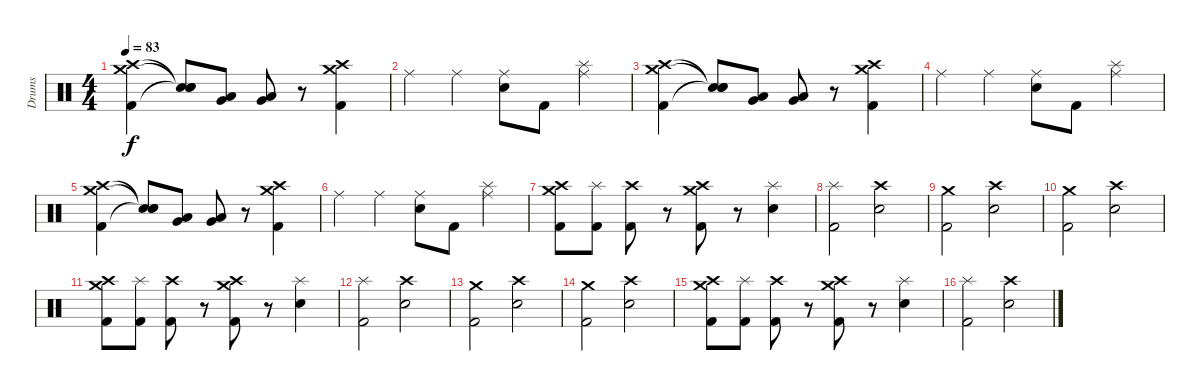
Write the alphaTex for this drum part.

\track ("Drums" "Drums") {instrument percussion}
\staff {score}
\articulation defaults
\ts (4 4)
\tempo 83
\clef neutral
\ks c
("Crash high (hit)" "Crash medium (hit)" "Kick (hit) 2").4{dy f} ("Snare (hit)"{t} "Snare (hit)"{t} "Snare (hit)"{t}).8 ("Low Tom (hit)" "Very Low Tom (hit)").8 ("Low Tom (hit)" "Very Low Tom (hit)").8 r.8 ("Crash high (hit)" "Crash medium (hit)" "Kick (hit) 2").4 |
"Ride (middle)".4 "Ride (middle)".4 ("Ride (middle)" "Snare (hit) 2").8 "Kick (hit) 2".8 ("Ride (middle)" "Splash (hit)").4 |
("Crash high (hit)" "Crash medium (hit)" "Kick (hit) 2").4 ("Snare (hit)"{t} "Snare (hit)"{t} "Snare (hit)"{t}).8 ("Low Tom (hit)" "Very Low Tom (hit)").8 ("Low Tom (hit)" "Very Low Tom (hit)").8 r.8 ("Crash high (hit)" "Crash medium (hit)" "Kick (hit) 2").4 |
"Ride (middle)".4 "Ride (middle)".4 ("Ride (middle)" "Snare (hit) 2").8 "Kick (hit) 2".8 ("Ride (middle)" "Splash (hit)").4 |
("Crash high (hit)" "Crash medium (hit)" "Kick (hit) 2").4 ("Snare (hit)"{t} "Snare (hit)"{t} "Snare (hit)"{t}).8 ("Low Tom (hit)" "Very Low Tom (hit)").8 ("Low Tom (hit)" "Very Low Tom (hit)").8 r.8 ("Crash high (hit)" "Crash medium (hit)" "Kick (hit) 2").4 |
"Ride (middle)".4 "Ride (middle)".4 ("Ride (middle)" "Snare (hit) 2").8 "Kick (hit) 2".8 ("Ride (middle)" "Splash (hit)").4 |
("Crash medium (hit)" "Crash high (hit)" "Kick (hit) 2").8 ("Splash (hit)" "Kick (hit) 2").8 ("Crash high (hit)" "Kick (hit) 2").8 r.8 ("Crash medium (hit)" "Crash high (hit)" "Kick (hit) 2").8 r.8 ("Splash (hit)" "Snare (hit) 2").4 |
("Splash (hit)" "Kick (hit) 2").2 ("Crash high (hit)" "Snare (hit) 2").2 |
("Crash medium (hit)" "Kick (hit) 2").2 ("Crash high (hit)" "Snare (hit) 2").2 |
("Crash medium (hit)" "Kick (hit) 2").2 ("Crash high (hit)" "Snare (hit) 2").2 |
("Crash medium (hit)" "Crash high (hit)" "Kick (hit) 2").8 ("Splash (hit)" "Kick (hit) 2").8 ("Crash high (hit)" "Kick (hit) 2").8 r.8 ("Crash medium (hit)" "Crash high (hit)" "Kick (hit) 2").8 r.8 ("Splash (hit)" "Snare (hit) 2").4 |
("Splash (hit)" "Kick (hit) 2").2 ("Crash high (hit)" "Snare (hit) 2").2 |
("Crash medium (hit)" "Kick (hit) 2").2 ("Crash high (hit)" "Snare (hit) 2").2 |
("Crash medium (hit)" "Kick (hit) 2").2 ("Crash high (hit)" "Snare (hit) 2").2 |
("Crash medium (hit)" "Crash high (hit)" "Kick (hit) 2").8 ("Splash (hit)" "Kick (hit) 2").8 ("Crash high (hit)" "Kick (hit) 2").8 r.8 ("Crash medium (hit)" "Crash high (hit)" "Kick (hit) 2").8 r.8 ("Splash (hit)" "Snare (hit) 2").4 |
("Splash (hit)" "Kick (hit) 2").2 ("Crash high (hit)" "Snare (hit) 2").2
